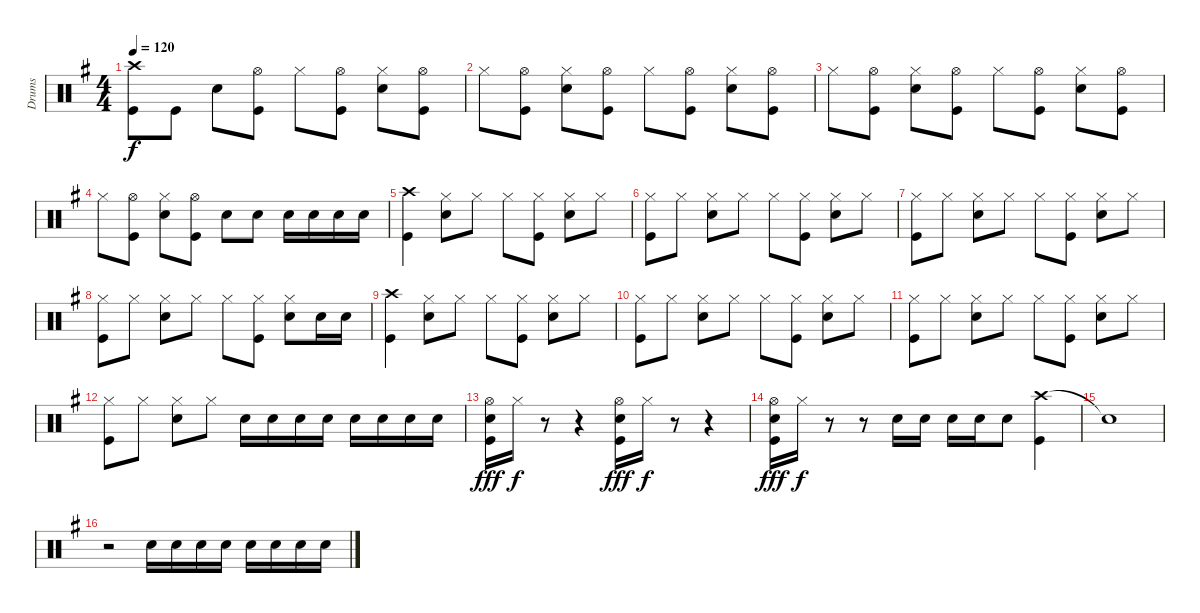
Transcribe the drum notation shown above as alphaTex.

\track ("Drums" "Drums") {instrument percussion}
\staff {score}
\articulation defaults
\ts (4 4)
\tempo 120
\clef neutral
\ks g
("Crash high (hit)" "Kick (hit)").8{dy f} "Kick (hit)".8 "Snare (hit) 2".8 ("Hi-Hat (open)" "Kick (hit)").8 "Hi-Hat (closed)".8 ("Hi-Hat (open)" "Kick (hit)").8 ("Hi-Hat (closed)" "Snare (hit) 2").8 ("Hi-Hat (open)" "Kick (hit)").8 |
"Hi-Hat (closed)".8 ("Hi-Hat (open)" "Kick (hit)").8 ("Hi-Hat (closed)" "Snare (hit) 2").8 ("Hi-Hat (open)" "Kick (hit)").8 "Hi-Hat (closed)".8 ("Hi-Hat (open)" "Kick (hit)").8 ("Hi-Hat (closed)" "Snare (hit) 2").8 ("Hi-Hat (open)" "Kick (hit)").8 |
"Hi-Hat (closed)".8 ("Hi-Hat (open)" "Kick (hit)").8 ("Hi-Hat (closed)" "Snare (hit) 2").8 ("Hi-Hat (open)" "Kick (hit)").8 "Hi-Hat (closed)".8 ("Hi-Hat (open)" "Kick (hit)").8 ("Hi-Hat (closed)" "Snare (hit) 2").8 ("Hi-Hat (open)" "Kick (hit)").8 |
"Hi-Hat (closed)".8 ("Hi-Hat (open)" "Kick (hit)").8 ("Hi-Hat (closed)" "Snare (hit) 2").8 ("Hi-Hat (open)" "Kick (hit)").8 "Snare (hit) 2".8 "Snare (hit) 2".8 "Snare (hit) 2".16 "Snare (hit) 2".16 "Snare (hit) 2".16 "Snare (hit) 2".16 |
("Crash high (hit)" "Kick (hit)").4 ("Hi-Hat (closed)" "Snare (hit) 2").8 "Hi-Hat (closed)".8 "Hi-Hat (closed)".8 ("Hi-Hat (closed)" "Kick (hit)").8 ("Hi-Hat (closed)" "Snare (hit) 2").8 "Hi-Hat (closed)".8 |
("Hi-Hat (closed)" "Kick (hit)").8 "Hi-Hat (closed)".8 ("Hi-Hat (closed)" "Snare (hit) 2").8 "Hi-Hat (closed)".8 "Hi-Hat (closed)".8 ("Hi-Hat (closed)" "Kick (hit)").8 ("Hi-Hat (closed)" "Snare (hit) 2").8 "Hi-Hat (closed)".8 |
("Hi-Hat (closed)" "Kick (hit)").8 "Hi-Hat (closed)".8 ("Hi-Hat (closed)" "Snare (hit) 2").8 "Hi-Hat (closed)".8 "Hi-Hat (closed)".8 ("Hi-Hat (closed)" "Kick (hit)").8 ("Hi-Hat (closed)" "Snare (hit) 2").8 "Hi-Hat (closed)".8 |
("Hi-Hat (closed)" "Kick (hit)").8 "Hi-Hat (closed)".8 ("Hi-Hat (closed)" "Snare (hit) 2").8 "Hi-Hat (closed)".8 "Hi-Hat (closed)".8 ("Hi-Hat (closed)" "Kick (hit)").8 ("Hi-Hat (closed)" "Snare (hit) 2").8 "Snare (hit) 2".16 "Snare (hit) 2".16 |
("Crash high (hit)" "Kick (hit)").4 ("Hi-Hat (closed)" "Snare (hit) 2").8 "Hi-Hat (closed)".8 "Hi-Hat (closed)".8 ("Hi-Hat (closed)" "Kick (hit)").8 ("Hi-Hat (closed)" "Snare (hit) 2").8 "Hi-Hat (closed)".8 |
("Hi-Hat (closed)" "Kick (hit)").8 "Hi-Hat (closed)".8 ("Hi-Hat (closed)" "Snare (hit) 2").8 "Hi-Hat (closed)".8 "Hi-Hat (closed)".8 ("Hi-Hat (closed)" "Kick (hit)").8 ("Hi-Hat (closed)" "Snare (hit) 2").8 "Hi-Hat (closed)".8 |
("Hi-Hat (closed)" "Kick (hit)").8 "Hi-Hat (closed)".8 ("Hi-Hat (closed)" "Snare (hit) 2").8 "Hi-Hat (closed)".8 "Hi-Hat (closed)".8 ("Hi-Hat (closed)" "Kick (hit)").8 ("Hi-Hat (closed)" "Snare (hit) 2").8 "Hi-Hat (closed)".8 |
("Hi-Hat (closed)" "Kick (hit)").8 "Hi-Hat (closed)".8 ("Hi-Hat (closed)" "Snare (hit) 2").8 "Hi-Hat (closed)".8 "Snare (hit) 2".16 "Snare (hit) 2".16 "Snare (hit) 2".16 "Snare (hit) 2".16 "Snare (hit) 2".16 "Snare (hit) 2".16 "Snare (hit) 2".16 "Snare (hit) 2".16 |
("Hi-Hat (open)" "Snare (hit) 2" "Kick (hit)").16{dy fff} "Hi-Hat (closed)".16{dy f} r.8 r.4 ("Hi-Hat (open)" "Snare (hit) 2" "Kick (hit)").16{dy fff} "Hi-Hat (closed)".16{dy f} r.8 r.4 |
("Hi-Hat (open)" "Snare (hit) 2" "Kick (hit)").16{dy fff} "Hi-Hat (closed)".16{dy f} r.8 r.8 "Snare (hit) 2".16 "Snare (hit) 2".16 "Snare (hit) 2".16 "Snare (hit) 2".16 "Snare (hit) 2".8 ("Crash high (hit)" "Kick (hit)").4 |
"Snare (hit)"{t}.1 |
r.2 "Snare (hit) 2".16 "Snare (hit) 2".16 "Snare (hit) 2".16 "Snare (hit) 2".16 "Snare (hit) 2".16 "Snare (hit) 2".16 "Snare (hit) 2".16 "Snare (hit) 2".16
